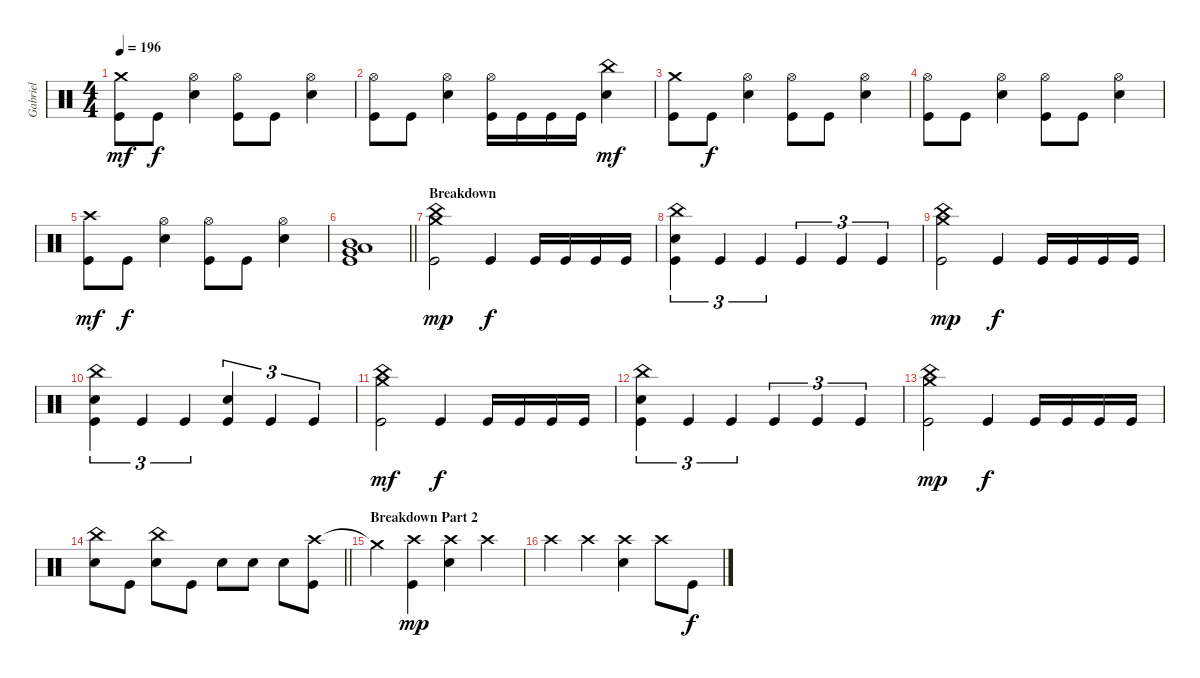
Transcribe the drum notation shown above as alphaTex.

\track ("Gabriel" "Gabriel") {instrument percussion}
\staff {score}
\articulation defaults
\ts (4 4)
\tempo 196
\clef neutral
\ks aminor
("Crash medium (hit)" "Kick (hit)").8{dy mf} "Kick (hit)".8{dy f} ("Hi-Hat (open)" "Snare (hit) 2").4 ("Hi-Hat (open)" "Kick (hit)").8 "Kick (hit)".8 ("Hi-Hat (open)" "Snare (hit) 2").4 |
("Hi-Hat (open)" "Kick (hit)").8 "Kick (hit)".8 ("Hi-Hat (open)" "Snare (hit) 2").4 ("Hi-Hat (open)" "Kick (hit)").16 "Kick (hit)".16 "Kick (hit)".16 "Kick (hit)".16 ("China (hit)" "Snare (hit) 2").4{dy mf} |
("Crash medium (hit)" "Kick (hit)").8 "Kick (hit)".8{dy f} ("Hi-Hat (open)" "Snare (hit) 2").4 ("Hi-Hat (open)" "Kick (hit)").8 "Kick (hit)".8 ("Hi-Hat (open)" "Snare (hit) 2").4 |
("Hi-Hat (open)" "Kick (hit)").8 "Kick (hit)".8 ("Hi-Hat (open)" "Snare (hit) 2").4 ("Hi-Hat (open)" "Kick (hit)").8 "Kick (hit)".8 ("Hi-Hat (open)" "Snare (hit) 2").4 |
("Crash high (hit)" "Kick (hit)").8{dy mf} "Kick (hit)".8{dy f} ("Hi-Hat (open)" "Snare (hit) 2").4 ("Hi-Hat (open)" "Kick (hit)").8 "Kick (hit)".8 ("Hi-Hat (open)" "Snare (hit) 2").4 |
\barLineRight lightlight
("Mid Tom (hit)" "Very Low Tom (hit)" "Low Tom (hit)" "Kick (hit)").1 |
\section ("" "Breakdown")
("China (hit)" "Crash medium (hit)" "Kick (hit)").2{dy mp} "Kick (hit)".4{dy f} "Kick (hit)".16 "Kick (hit)".16 "Kick (hit)".16 "Kick (hit)".16 |
("China (hit)" "Snare (hit) 2" "Kick (hit)").4{tu (3 2)} "Kick (hit)".4{tu (3 2)} "Kick (hit)".4{tu (3 2)} "Kick (hit)".4{tu (3 2)} "Kick (hit)".4{tu (3 2)} "Kick (hit)".4{tu (3 2)} |
("China (hit)" "Crash medium (hit)" "Kick (hit)").2{dy mp} "Kick (hit)".4{dy f} "Kick (hit)".16 "Kick (hit)".16 "Kick (hit)".16 "Kick (hit)".16 |
("China (hit)" "Snare (hit) 2" "Kick (hit)").4{tu (3 2)} "Kick (hit)".4{tu (3 2)} "Kick (hit)".4{tu (3 2)} ("Snare (hit) 2" "Kick (hit)").4{tu (3 2)} "Kick (hit)".4{tu (3 2)} "Kick (hit)".4{tu (3 2)} |
("China (hit)" "Crash medium (hit)" "Kick (hit)").2{dy mf} "Kick (hit)".4{dy f} "Kick (hit)".16 "Kick (hit)".16 "Kick (hit)".16 "Kick (hit)".16 |
("China (hit)" "Snare (hit) 2" "Kick (hit)").4{tu (3 2)} "Kick (hit)".4{tu (3 2)} "Kick (hit)".4{tu (3 2)} "Kick (hit)".4{tu (3 2)} "Kick (hit)".4{tu (3 2)} "Kick (hit)".4{tu (3 2)} |
("China (hit)" "Crash medium (hit)" "Kick (hit)").2{dy mp} "Kick (hit)".4{dy f} "Kick (hit)".16 "Kick (hit)".16 "Kick (hit)".16 "Kick (hit)".16 |
\barLineRight lightlight
("China (hit)" "Snare (hit) 2").8 "Kick (hit)".8 ("China (hit)" "Snare (hit) 2").8 "Kick (hit)".8 "Snare (hit) 2".8 "Snare (hit) 2".8 "Snare (hit) 2".8 ("Crash high (hit)" "Kick (hit)").8 |
\section ("" "Breakdown Part 2")
"Crash medium (hit)"{t}.4 ("Crash high (hit)" "Kick (hit)").4{dy mp} ("Crash high (hit)" "Snare (hit) 2").4 "Crash high (hit)".4 |
"Crash high (hit)".4 "Crash high (hit)".4 ("Crash high (hit)" "Snare (hit) 2").4 "Crash high (hit)".8 "Kick (hit)".8{dy f}
